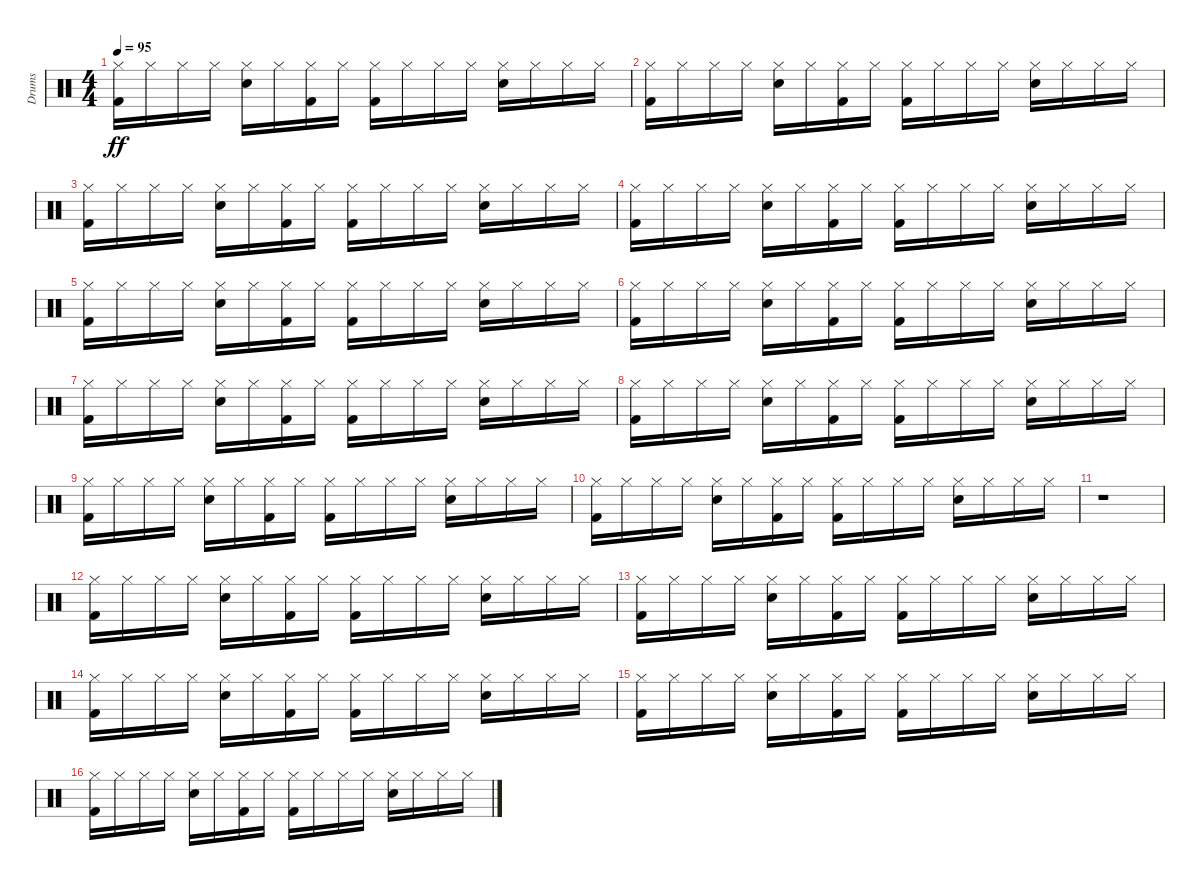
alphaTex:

\track ("Drums" "Drums") {instrument percussion}
\staff {score}
\articulation defaults
\ts (4 4)
\tempo 95
\clef neutral
\ks c
("Kick (hit) 2" "Hi-Hat (closed)").16{dy ff} "Hi-Hat (closed)".16 "Hi-Hat (closed)".16 "Hi-Hat (closed)".16 ("Snare (hit) 2" "Hi-Hat (closed)").16 "Hi-Hat (closed)".16 ("Kick (hit) 2" "Hi-Hat (closed)").16 "Hi-Hat (closed)".16 ("Kick (hit) 2" "Hi-Hat (closed)").16 "Hi-Hat (closed)".16 "Hi-Hat (closed)".16 "Hi-Hat (closed)".16 ("Snare (hit) 2" "Hi-Hat (closed)").16 "Hi-Hat (closed)".16 "Hi-Hat (closed)".16 "Hi-Hat (closed)".16 |
("Kick (hit) 2" "Hi-Hat (closed)").16 "Hi-Hat (closed)".16 "Hi-Hat (closed)".16 "Hi-Hat (closed)".16 ("Snare (hit) 2" "Hi-Hat (closed)").16 "Hi-Hat (closed)".16 ("Kick (hit) 2" "Hi-Hat (closed)").16 "Hi-Hat (closed)".16 ("Kick (hit) 2" "Hi-Hat (closed)").16 "Hi-Hat (closed)".16 "Hi-Hat (closed)".16 "Hi-Hat (closed)".16 ("Snare (hit) 2" "Hi-Hat (closed)").16 "Hi-Hat (closed)".16 "Hi-Hat (closed)".16 "Hi-Hat (closed)".16 |
("Kick (hit) 2" "Hi-Hat (closed)").16 "Hi-Hat (closed)".16 "Hi-Hat (closed)".16 "Hi-Hat (closed)".16 ("Snare (hit) 2" "Hi-Hat (closed)").16 "Hi-Hat (closed)".16 ("Kick (hit) 2" "Hi-Hat (closed)").16 "Hi-Hat (closed)".16 ("Kick (hit) 2" "Hi-Hat (closed)").16 "Hi-Hat (closed)".16 "Hi-Hat (closed)".16 "Hi-Hat (closed)".16 ("Snare (hit) 2" "Hi-Hat (closed)").16 "Hi-Hat (closed)".16 "Hi-Hat (closed)".16 "Hi-Hat (closed)".16 |
("Kick (hit) 2" "Hi-Hat (closed)").16 "Hi-Hat (closed)".16 "Hi-Hat (closed)".16 "Hi-Hat (closed)".16 ("Snare (hit) 2" "Hi-Hat (closed)").16 "Hi-Hat (closed)".16 ("Kick (hit) 2" "Hi-Hat (closed)").16 "Hi-Hat (closed)".16 ("Kick (hit) 2" "Hi-Hat (closed)").16 "Hi-Hat (closed)".16 "Hi-Hat (closed)".16 "Hi-Hat (closed)".16 ("Snare (hit) 2" "Hi-Hat (closed)").16 "Hi-Hat (closed)".16 "Hi-Hat (closed)".16 "Hi-Hat (closed)".16 |
("Kick (hit) 2" "Hi-Hat (closed)").16 "Hi-Hat (closed)".16 "Hi-Hat (closed)".16 "Hi-Hat (closed)".16 ("Snare (hit) 2" "Hi-Hat (closed)").16 "Hi-Hat (closed)".16 ("Kick (hit) 2" "Hi-Hat (closed)").16 "Hi-Hat (closed)".16 ("Kick (hit) 2" "Hi-Hat (closed)").16 "Hi-Hat (closed)".16 "Hi-Hat (closed)".16 "Hi-Hat (closed)".16 ("Snare (hit) 2" "Hi-Hat (closed)").16 "Hi-Hat (closed)".16 "Hi-Hat (closed)".16 "Hi-Hat (closed)".16 |
("Kick (hit) 2" "Hi-Hat (closed)").16 "Hi-Hat (closed)".16 "Hi-Hat (closed)".16 "Hi-Hat (closed)".16 ("Snare (hit) 2" "Hi-Hat (closed)").16 "Hi-Hat (closed)".16 ("Kick (hit) 2" "Hi-Hat (closed)").16 "Hi-Hat (closed)".16 ("Kick (hit) 2" "Hi-Hat (closed)").16 "Hi-Hat (closed)".16 "Hi-Hat (closed)".16 "Hi-Hat (closed)".16 ("Snare (hit) 2" "Hi-Hat (closed)").16 "Hi-Hat (closed)".16 "Hi-Hat (closed)".16 "Hi-Hat (closed)".16 |
("Kick (hit) 2" "Hi-Hat (closed)").16 "Hi-Hat (closed)".16 "Hi-Hat (closed)".16 "Hi-Hat (closed)".16 ("Snare (hit) 2" "Hi-Hat (closed)").16 "Hi-Hat (closed)".16 ("Kick (hit) 2" "Hi-Hat (closed)").16 "Hi-Hat (closed)".16 ("Kick (hit) 2" "Hi-Hat (closed)").16 "Hi-Hat (closed)".16 "Hi-Hat (closed)".16 "Hi-Hat (closed)".16 ("Snare (hit) 2" "Hi-Hat (closed)").16 "Hi-Hat (closed)".16 "Hi-Hat (closed)".16 "Hi-Hat (closed)".16 |
("Kick (hit) 2" "Hi-Hat (closed)").16 "Hi-Hat (closed)".16 "Hi-Hat (closed)".16 "Hi-Hat (closed)".16 ("Snare (hit) 2" "Hi-Hat (closed)").16 "Hi-Hat (closed)".16 ("Kick (hit) 2" "Hi-Hat (closed)").16 "Hi-Hat (closed)".16 ("Kick (hit) 2" "Hi-Hat (closed)").16 "Hi-Hat (closed)".16 "Hi-Hat (closed)".16 "Hi-Hat (closed)".16 ("Snare (hit) 2" "Hi-Hat (closed)").16 "Hi-Hat (closed)".16 "Hi-Hat (closed)".16 "Hi-Hat (closed)".16 |
("Kick (hit) 2" "Hi-Hat (closed)").16 "Hi-Hat (closed)".16 "Hi-Hat (closed)".16 "Hi-Hat (closed)".16 ("Snare (hit) 2" "Hi-Hat (closed)").16 "Hi-Hat (closed)".16 ("Kick (hit) 2" "Hi-Hat (closed)").16 "Hi-Hat (closed)".16 ("Kick (hit) 2" "Hi-Hat (closed)").16 "Hi-Hat (closed)".16 "Hi-Hat (closed)".16 "Hi-Hat (closed)".16 ("Snare (hit) 2" "Hi-Hat (closed)").16 "Hi-Hat (closed)".16 "Hi-Hat (closed)".16 "Hi-Hat (closed)".16 |
("Kick (hit) 2" "Hi-Hat (closed)").16 "Hi-Hat (closed)".16 "Hi-Hat (closed)".16 "Hi-Hat (closed)".16 ("Snare (hit) 2" "Hi-Hat (closed)").16 "Hi-Hat (closed)".16 ("Kick (hit) 2" "Hi-Hat (closed)").16 "Hi-Hat (closed)".16 ("Kick (hit) 2" "Hi-Hat (closed)").16 "Hi-Hat (closed)".16 "Hi-Hat (closed)".16 "Hi-Hat (closed)".16 ("Snare (hit) 2" "Hi-Hat (closed)").16 "Hi-Hat (closed)".16 "Hi-Hat (closed)".16 "Hi-Hat (closed)".16 |
r.1 |
("Kick (hit) 2" "Hi-Hat (closed)").16 "Hi-Hat (closed)".16 "Hi-Hat (closed)".16 "Hi-Hat (closed)".16 ("Snare (hit) 2" "Hi-Hat (closed)").16 "Hi-Hat (closed)".16 ("Kick (hit) 2" "Hi-Hat (closed)").16 "Hi-Hat (closed)".16 ("Kick (hit) 2" "Hi-Hat (closed)").16 "Hi-Hat (closed)".16 "Hi-Hat (closed)".16 "Hi-Hat (closed)".16 ("Snare (hit) 2" "Hi-Hat (closed)").16 "Hi-Hat (closed)".16 "Hi-Hat (closed)".16 "Hi-Hat (closed)".16 |
("Kick (hit) 2" "Hi-Hat (closed)").16 "Hi-Hat (closed)".16 "Hi-Hat (closed)".16 "Hi-Hat (closed)".16 ("Snare (hit) 2" "Hi-Hat (closed)").16 "Hi-Hat (closed)".16 ("Kick (hit) 2" "Hi-Hat (closed)").16 "Hi-Hat (closed)".16 ("Kick (hit) 2" "Hi-Hat (closed)").16 "Hi-Hat (closed)".16 "Hi-Hat (closed)".16 "Hi-Hat (closed)".16 ("Snare (hit) 2" "Hi-Hat (closed)").16 "Hi-Hat (closed)".16 "Hi-Hat (closed)".16 "Hi-Hat (closed)".16 |
("Kick (hit) 2" "Hi-Hat (closed)").16 "Hi-Hat (closed)".16 "Hi-Hat (closed)".16 "Hi-Hat (closed)".16 ("Snare (hit) 2" "Hi-Hat (closed)").16 "Hi-Hat (closed)".16 ("Kick (hit) 2" "Hi-Hat (closed)").16 "Hi-Hat (closed)".16 ("Kick (hit) 2" "Hi-Hat (closed)").16 "Hi-Hat (closed)".16 "Hi-Hat (closed)".16 "Hi-Hat (closed)".16 ("Snare (hit) 2" "Hi-Hat (closed)").16 "Hi-Hat (closed)".16 "Hi-Hat (closed)".16 "Hi-Hat (closed)".16 |
("Kick (hit) 2" "Hi-Hat (closed)").16 "Hi-Hat (closed)".16 "Hi-Hat (closed)".16 "Hi-Hat (closed)".16 ("Snare (hit) 2" "Hi-Hat (closed)").16 "Hi-Hat (closed)".16 ("Kick (hit) 2" "Hi-Hat (closed)").16 "Hi-Hat (closed)".16 ("Kick (hit) 2" "Hi-Hat (closed)").16 "Hi-Hat (closed)".16 "Hi-Hat (closed)".16 "Hi-Hat (closed)".16 ("Snare (hit) 2" "Hi-Hat (closed)").16 "Hi-Hat (closed)".16 "Hi-Hat (closed)".16 "Hi-Hat (closed)".16 |
("Kick (hit) 2" "Hi-Hat (closed)").16 "Hi-Hat (closed)".16 "Hi-Hat (closed)".16 "Hi-Hat (closed)".16 ("Snare (hit) 2" "Hi-Hat (closed)").16 "Hi-Hat (closed)".16 ("Kick (hit) 2" "Hi-Hat (closed)").16 "Hi-Hat (closed)".16 ("Kick (hit) 2" "Hi-Hat (closed)").16 "Hi-Hat (closed)".16 "Hi-Hat (closed)".16 "Hi-Hat (closed)".16 ("Snare (hit) 2" "Hi-Hat (closed)").16 "Hi-Hat (closed)".16 "Hi-Hat (closed)".16 "Hi-Hat (closed)".16
